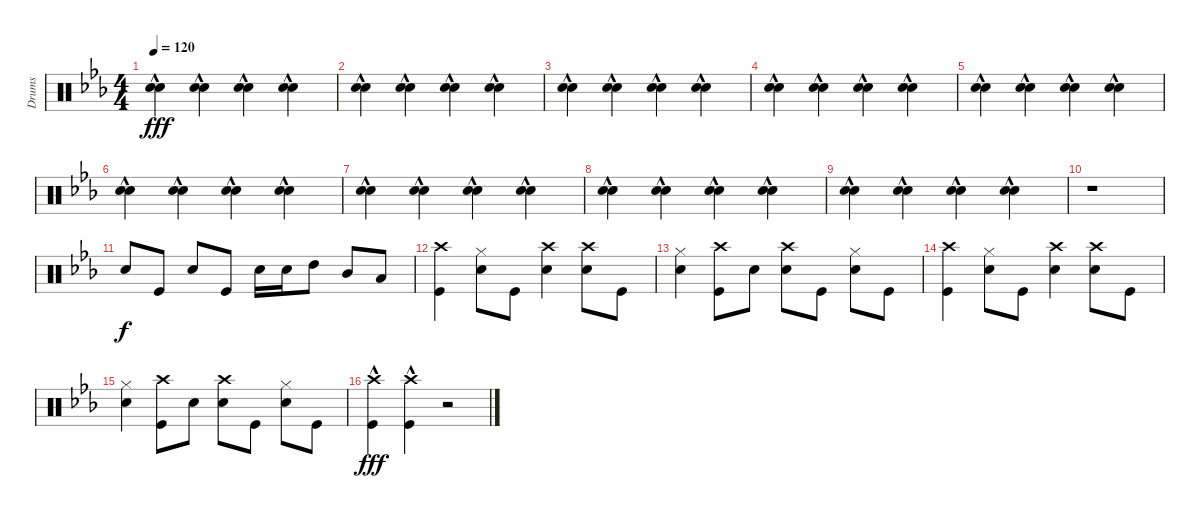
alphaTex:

\track ("Drums" "Drums") {instrument percussion}
\staff {score}
\articulation defaults
\ts (4 4)
\tempo 120
\clef neutral
\ks eb
("Hand Clap (hit)"{hac} "Hand Clap (hit)"{hac}).4{dy fff} ("Hand Clap (hit)"{hac} "Hand Clap (hit)"{hac}).4 ("Hand Clap (hit)"{hac} "Hand Clap (hit)"{hac}).4 ("Hand Clap (hit)"{hac} "Hand Clap (hit)"{hac}).4 |
("Hand Clap (hit)"{hac} "Hand Clap (hit)"{hac}).4 ("Hand Clap (hit)"{hac} "Hand Clap (hit)"{hac}).4 ("Hand Clap (hit)"{hac} "Hand Clap (hit)"{hac}).4 ("Hand Clap (hit)"{hac} "Hand Clap (hit)"{hac}).4 |
("Hand Clap (hit)"{hac} "Hand Clap (hit)"{hac}).4 ("Hand Clap (hit)"{hac} "Hand Clap (hit)"{hac}).4 ("Hand Clap (hit)"{hac} "Hand Clap (hit)"{hac}).4 ("Hand Clap (hit)"{hac} "Hand Clap (hit)"{hac}).4 |
("Hand Clap (hit)"{hac} "Hand Clap (hit)"{hac}).4 ("Hand Clap (hit)"{hac} "Hand Clap (hit)"{hac}).4 ("Hand Clap (hit)"{hac} "Hand Clap (hit)"{hac}).4 ("Hand Clap (hit)"{hac} "Hand Clap (hit)"{hac}).4 |
("Hand Clap (hit)"{hac} "Hand Clap (hit)"{hac}).4 ("Hand Clap (hit)"{hac} "Hand Clap (hit)"{hac}).4 ("Hand Clap (hit)"{hac} "Hand Clap (hit)"{hac}).4 ("Hand Clap (hit)"{hac} "Hand Clap (hit)"{hac}).4 |
("Hand Clap (hit)"{hac} "Hand Clap (hit)"{hac}).4 ("Hand Clap (hit)"{hac} "Hand Clap (hit)"{hac}).4 ("Hand Clap (hit)"{hac} "Hand Clap (hit)"{hac}).4 ("Hand Clap (hit)"{hac} "Hand Clap (hit)"{hac}).4 |
("Hand Clap (hit)"{hac} "Hand Clap (hit)"{hac}).4 ("Hand Clap (hit)"{hac} "Hand Clap (hit)"{hac}).4 ("Hand Clap (hit)"{hac} "Hand Clap (hit)"{hac}).4 ("Hand Clap (hit)"{hac} "Hand Clap (hit)"{hac}).4 |
("Hand Clap (hit)"{hac} "Hand Clap (hit)"{hac}).4 ("Hand Clap (hit)"{hac} "Hand Clap (hit)"{hac}).4 ("Hand Clap (hit)"{hac} "Hand Clap (hit)"{hac}).4 ("Hand Clap (hit)"{hac} "Hand Clap (hit)"{hac}).4 |
("Hand Clap (hit)"{hac} "Hand Clap (hit)"{hac}).4 ("Hand Clap (hit)"{hac} "Hand Clap (hit)"{hac}).4 ("Hand Clap (hit)"{hac} "Hand Clap (hit)"{hac}).4 ("Hand Clap (hit)"{hac} "Hand Clap (hit)"{hac}).4 |
r.1 |
"Electric Snare (hit)".8{dy f} "Kick (hit)".8 "Electric Snare (hit)".8 "Kick (hit)".8 "Electric Snare (hit)".16 "Electric Snare (hit)".16 "High Tom (hit)".8 "Mid Tom (hit)".8 "Low Tom (hit)".8 |
("Crash high (hit)" "Kick (hit)").4 ("Hi-Hat (closed)" "Electric Snare (hit)").8 "Kick (hit)".8 ("Crash high (hit)" "Electric Snare (hit)").4 ("Crash high (hit)" "Electric Snare (hit)").8 "Kick (hit)".8 |
("Hi-Hat (closed)" "Electric Snare (hit)").4 ("Crash high (hit)" "Kick (hit)").8 "Electric Snare (hit)".8 ("Crash high (hit)" "Electric Snare (hit)").8 "Kick (hit)".8 ("Hi-Hat (closed)" "Electric Snare (hit)").8 "Kick (hit)".8 |
("Crash high (hit)" "Kick (hit)").4 ("Hi-Hat (closed)" "Electric Snare (hit)").8 "Kick (hit)".8 ("Crash high (hit)" "Electric Snare (hit)").4 ("Crash high (hit)" "Electric Snare (hit)").8 "Kick (hit)".8 |
("Hi-Hat (closed)" "Electric Snare (hit)").4 ("Crash high (hit)" "Kick (hit)").8 "Electric Snare (hit)".8 ("Crash high (hit)" "Electric Snare (hit)").8 "Kick (hit)".8 ("Hi-Hat (closed)" "Electric Snare (hit)").8 "Kick (hit)".8 |
("Crash high (hit)"{hac} "Kick (hit)").4{dy fff} ("Crash high (hit)"{hac} "Kick (hit)").4 r.2
